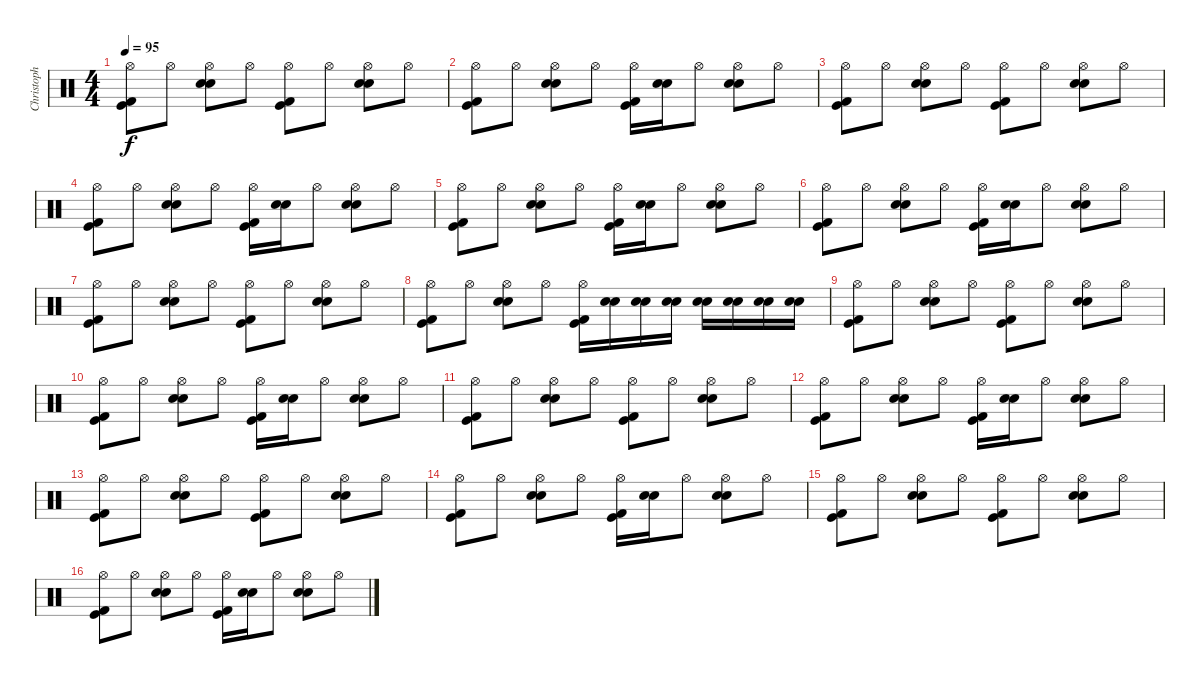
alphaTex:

\track ("Christoph" "Christoph") {instrument percussion}
\staff {score}
\articulation defaults
\ts (4 4)
\tempo 95
\clef neutral
\ks c
("Hi-Hat (open)" "Kick (hit)" "Kick (hit) 2").8{dy f} "Hi-Hat (open)".8 ("Hi-Hat (open)" "Electric Snare (hit)" "Snare (hit) 2").8 "Hi-Hat (open)".8 ("Hi-Hat (open)" "Kick (hit)" "Kick (hit) 2").8 "Hi-Hat (open)".8 ("Hi-Hat (open)" "Electric Snare (hit)" "Snare (hit) 2").8 "Hi-Hat (open)".8 |
("Hi-Hat (open)" "Kick (hit) 2" "Kick (hit)").8 "Hi-Hat (open)".8 ("Hi-Hat (open)" "Electric Snare (hit)" "Snare (hit) 2").8 "Hi-Hat (open)".8 ("Hi-Hat (open)" "Kick (hit)" "Kick (hit) 2").16 ("Electric Snare (hit)" "Snare (hit) 2").16 "Hi-Hat (open)".8 ("Hi-Hat (open)" "Electric Snare (hit)" "Snare (hit) 2").8 "Hi-Hat (open)".8 |
("Hi-Hat (open)" "Kick (hit)" "Kick (hit) 2").8 "Hi-Hat (open)".8 ("Hi-Hat (open)" "Electric Snare (hit)" "Snare (hit) 2").8 "Hi-Hat (open)".8 ("Hi-Hat (open)" "Kick (hit)" "Kick (hit) 2").8 "Hi-Hat (open)".8 ("Hi-Hat (open)" "Electric Snare (hit)" "Snare (hit) 2").8 "Hi-Hat (open)".8 |
("Hi-Hat (open)" "Kick (hit) 2" "Kick (hit)").8 "Hi-Hat (open)".8 ("Hi-Hat (open)" "Electric Snare (hit)" "Snare (hit) 2").8 "Hi-Hat (open)".8 ("Hi-Hat (open)" "Kick (hit)" "Kick (hit) 2").16 ("Electric Snare (hit)" "Snare (hit) 2").16 "Hi-Hat (open)".8 ("Hi-Hat (open)" "Electric Snare (hit)" "Snare (hit) 2").8 "Hi-Hat (open)".8 |
("Hi-Hat (open)" "Kick (hit) 2" "Kick (hit)").8 "Hi-Hat (open)".8 ("Hi-Hat (open)" "Electric Snare (hit)" "Snare (hit) 2").8 "Hi-Hat (open)".8 ("Hi-Hat (open)" "Kick (hit)" "Kick (hit) 2").16 ("Electric Snare (hit)" "Snare (hit) 2").16 "Hi-Hat (open)".8 ("Hi-Hat (open)" "Electric Snare (hit)" "Snare (hit) 2").8 "Hi-Hat (open)".8 |
("Hi-Hat (open)" "Kick (hit) 2" "Kick (hit)").8 "Hi-Hat (open)".8 ("Hi-Hat (open)" "Electric Snare (hit)" "Snare (hit) 2").8 "Hi-Hat (open)".8 ("Hi-Hat (open)" "Kick (hit)" "Kick (hit) 2").16 ("Electric Snare (hit)" "Snare (hit) 2").16 "Hi-Hat (open)".8 ("Hi-Hat (open)" "Electric Snare (hit)" "Snare (hit) 2").8 "Hi-Hat (open)".8 |
("Hi-Hat (open)" "Kick (hit)" "Kick (hit) 2").8 "Hi-Hat (open)".8 ("Hi-Hat (open)" "Electric Snare (hit)" "Snare (hit) 2").8 "Hi-Hat (open)".8 ("Hi-Hat (open)" "Kick (hit)" "Kick (hit) 2").8 "Hi-Hat (open)".8 ("Hi-Hat (open)" "Electric Snare (hit)" "Snare (hit) 2").8 "Hi-Hat (open)".8 |
("Hi-Hat (open)" "Kick (hit) 2" "Kick (hit)").8 "Hi-Hat (open)".8 ("Hi-Hat (open)" "Electric Snare (hit)" "Snare (hit) 2").8 "Hi-Hat (open)".8 ("Hi-Hat (open)" "Kick (hit)" "Kick (hit) 2").16 ("Electric Snare (hit)" "Snare (hit) 2").16 ("Electric Snare (hit)" "Snare (hit) 2").16 ("Electric Snare (hit)" "Snare (hit) 2").16 ("Electric Snare (hit)" "Snare (hit) 2").16 ("Electric Snare (hit)" "Snare (hit) 2").16 ("Electric Snare (hit)" "Snare (hit) 2").16 ("Electric Snare (hit)" "Snare (hit) 2").16 |
("Hi-Hat (open)" "Kick (hit)" "Kick (hit) 2").8 "Hi-Hat (open)".8 ("Hi-Hat (open)" "Electric Snare (hit)" "Snare (hit) 2").8 "Hi-Hat (open)".8 ("Hi-Hat (open)" "Kick (hit)" "Kick (hit) 2").8 "Hi-Hat (open)".8 ("Hi-Hat (open)" "Electric Snare (hit)" "Snare (hit) 2").8 "Hi-Hat (open)".8 |
("Hi-Hat (open)" "Kick (hit) 2" "Kick (hit)").8 "Hi-Hat (open)".8 ("Hi-Hat (open)" "Electric Snare (hit)" "Snare (hit) 2").8 "Hi-Hat (open)".8 ("Hi-Hat (open)" "Kick (hit)" "Kick (hit) 2").16 ("Electric Snare (hit)" "Snare (hit) 2").16 "Hi-Hat (open)".8 ("Hi-Hat (open)" "Electric Snare (hit)" "Snare (hit) 2").8 "Hi-Hat (open)".8 |
("Hi-Hat (open)" "Kick (hit)" "Kick (hit) 2").8 "Hi-Hat (open)".8 ("Hi-Hat (open)" "Electric Snare (hit)" "Snare (hit) 2").8 "Hi-Hat (open)".8 ("Hi-Hat (open)" "Kick (hit)" "Kick (hit) 2").8 "Hi-Hat (open)".8 ("Hi-Hat (open)" "Electric Snare (hit)" "Snare (hit) 2").8 "Hi-Hat (open)".8 |
("Hi-Hat (open)" "Kick (hit) 2" "Kick (hit)").8 "Hi-Hat (open)".8 ("Hi-Hat (open)" "Electric Snare (hit)" "Snare (hit) 2").8 "Hi-Hat (open)".8 ("Hi-Hat (open)" "Kick (hit)" "Kick (hit) 2").16 ("Electric Snare (hit)" "Snare (hit) 2").16 "Hi-Hat (open)".8 ("Hi-Hat (open)" "Electric Snare (hit)" "Snare (hit) 2").8 "Hi-Hat (open)".8 |
("Hi-Hat (open)" "Kick (hit)" "Kick (hit) 2").8 "Hi-Hat (open)".8 ("Hi-Hat (open)" "Electric Snare (hit)" "Snare (hit) 2").8 "Hi-Hat (open)".8 ("Hi-Hat (open)" "Kick (hit)" "Kick (hit) 2").8 "Hi-Hat (open)".8 ("Hi-Hat (open)" "Electric Snare (hit)" "Snare (hit) 2").8 "Hi-Hat (open)".8 |
("Hi-Hat (open)" "Kick (hit) 2" "Kick (hit)").8 "Hi-Hat (open)".8 ("Hi-Hat (open)" "Electric Snare (hit)" "Snare (hit) 2").8 "Hi-Hat (open)".8 ("Hi-Hat (open)" "Kick (hit)" "Kick (hit) 2").16 ("Electric Snare (hit)" "Snare (hit) 2").16 "Hi-Hat (open)".8 ("Hi-Hat (open)" "Electric Snare (hit)" "Snare (hit) 2").8 "Hi-Hat (open)".8 |
("Hi-Hat (open)" "Kick (hit)" "Kick (hit) 2").8 "Hi-Hat (open)".8 ("Hi-Hat (open)" "Electric Snare (hit)" "Snare (hit) 2").8 "Hi-Hat (open)".8 ("Hi-Hat (open)" "Kick (hit)" "Kick (hit) 2").8 "Hi-Hat (open)".8 ("Hi-Hat (open)" "Electric Snare (hit)" "Snare (hit) 2").8 "Hi-Hat (open)".8 |
("Hi-Hat (open)" "Kick (hit) 2" "Kick (hit)").8 "Hi-Hat (open)".8 ("Hi-Hat (open)" "Electric Snare (hit)" "Snare (hit) 2").8 "Hi-Hat (open)".8 ("Hi-Hat (open)" "Kick (hit)" "Kick (hit) 2").16 ("Electric Snare (hit)" "Snare (hit) 2").16 "Hi-Hat (open)".8 ("Hi-Hat (open)" "Electric Snare (hit)" "Snare (hit) 2").8 "Hi-Hat (open)".8
